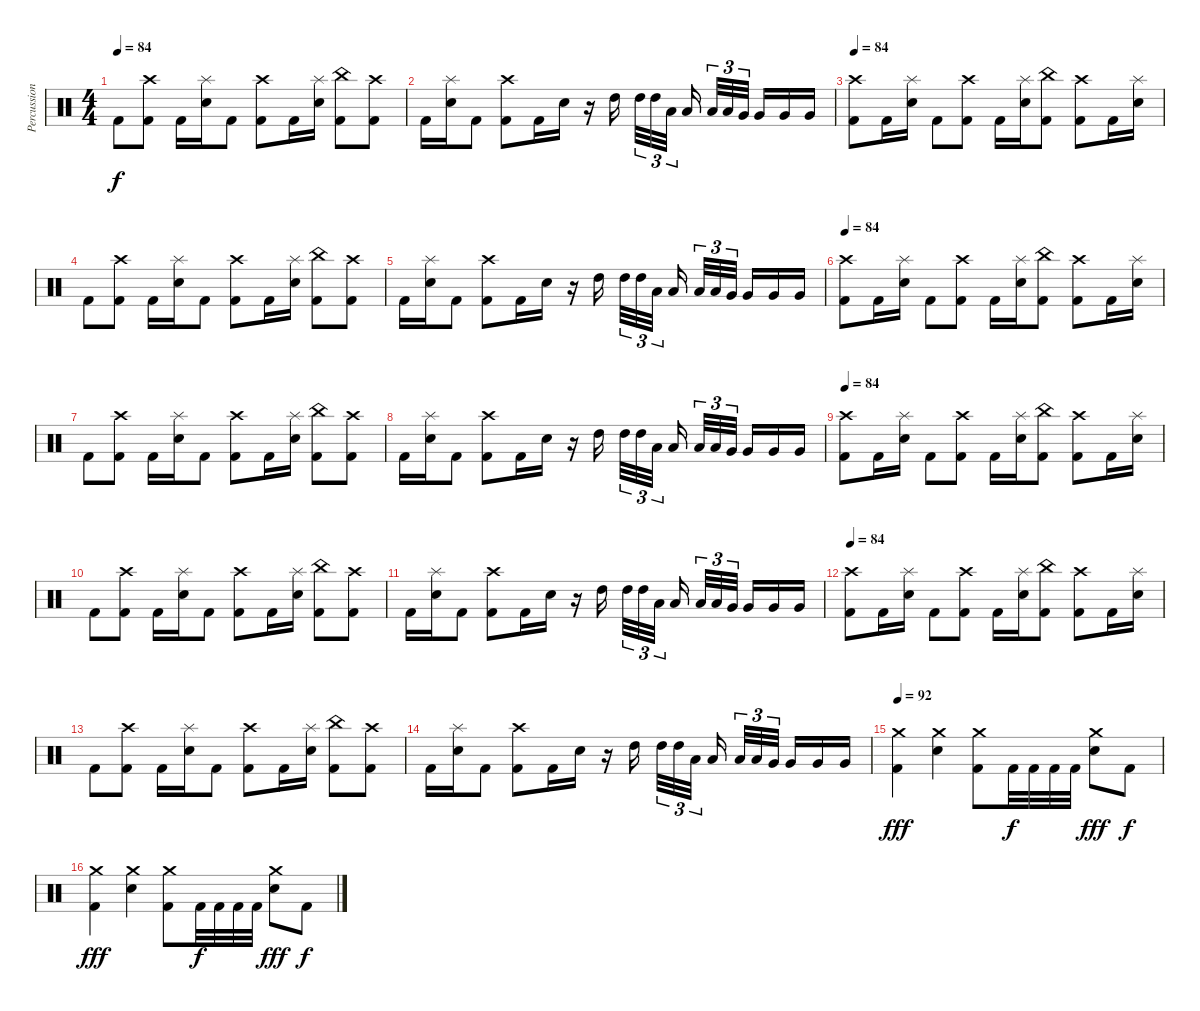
\track ("Percussion" "Percussion") {instrument percussion}
\staff {score}
\articulation defaults
\ts (4 4)
\tempo 84
\clef neutral
\ks c "Kick (hit) 2".8{dy f}
("Crash high (hit)" "Kick (hit) 2").8 "Kick (hit) 2".16 ("Splash (hit)" "Electric Snare (hit)").16 "Kick (hit) 2".8 ("Crash high (hit)" "Kick (hit) 2").8 "Kick (hit) 2".16 ("Splash (hit)" "Electric Snare (hit)").16 ("China (hit)" "Kick (hit) 2").8 ("Crash high (hit)" "Kick (hit) 2").8 |
"Kick (hit) 2".16 ("Splash (hit)" "Electric Snare (hit)").16 "Kick (hit) 2".8 ("Crash high (hit)" "Kick (hit) 2").8 "Kick (hit) 2".16 "Electric Snare (hit)".16 r.16 "High Tom (hit)".16 "High Tom (hit)".32{tu (3 2)} "High Tom (hit)".32{tu (3 2)} "Low Tom (hit)".32{tu (3 2)} "Low Tom (hit)".16 "Low Tom (hit)".32{tu (3 2)} "Low Tom (hit)".32{tu (3 2)} "Very Low Tom (hit)".32{tu (3 2)} "Very Low Tom (hit)".16 "Very Low Tom (hit)".16 "Very Low Tom (hit)".16 |
\tempo 84
("Crash high (hit)" "Kick (hit) 2").8 "Kick (hit) 2".16 ("Splash (hit)" "Electric Snare (hit)").16 "Kick (hit) 2".8 ("Crash high (hit)" "Kick (hit) 2").8 "Kick (hit) 2".16 ("Splash (hit)" "Electric Snare (hit)").16 ("China (hit)" "Kick (hit) 2").8 ("Crash high (hit)" "Kick (hit) 2").8 "Kick (hit) 2".16 ("Splash (hit)" "Electric Snare (hit)").16 |
"Kick (hit) 2".8 ("Crash high (hit)" "Kick (hit) 2").8 "Kick (hit) 2".16 ("Splash (hit)" "Electric Snare (hit)").16 "Kick (hit) 2".8 ("Crash high (hit)" "Kick (hit) 2").8 "Kick (hit) 2".16 ("Splash (hit)" "Electric Snare (hit)").16 ("China (hit)" "Kick (hit) 2").8 ("Crash high (hit)" "Kick (hit) 2").8 |
"Kick (hit) 2".16 ("Splash (hit)" "Electric Snare (hit)").16 "Kick (hit) 2".8 ("Crash high (hit)" "Kick (hit) 2").8 "Kick (hit) 2".16 "Electric Snare (hit)".16 r.16 "High Tom (hit)".16 "High Tom (hit)".32{tu (3 2)} "High Tom (hit)".32{tu (3 2)} "Low Tom (hit)".32{tu (3 2)} "Low Tom (hit)".16 "Low Tom (hit)".32{tu (3 2)} "Low Tom (hit)".32{tu (3 2)} "Very Low Tom (hit)".32{tu (3 2)} "Very Low Tom (hit)".16 "Very Low Tom (hit)".16 "Very Low Tom (hit)".16 |
\tempo 84
("Crash high (hit)" "Kick (hit) 2").8 "Kick (hit) 2".16 ("Splash (hit)" "Electric Snare (hit)").16 "Kick (hit) 2".8 ("Crash high (hit)" "Kick (hit) 2").8 "Kick (hit) 2".16 ("Splash (hit)" "Electric Snare (hit)").16 ("China (hit)" "Kick (hit) 2").8 ("Crash high (hit)" "Kick (hit) 2").8 "Kick (hit) 2".16 ("Splash (hit)" "Electric Snare (hit)").16 |
"Kick (hit) 2".8 ("Crash high (hit)" "Kick (hit) 2").8 "Kick (hit) 2".16 ("Splash (hit)" "Electric Snare (hit)").16 "Kick (hit) 2".8 ("Crash high (hit)" "Kick (hit) 2").8 "Kick (hit) 2".16 ("Splash (hit)" "Electric Snare (hit)").16 ("China (hit)" "Kick (hit) 2").8 ("Crash high (hit)" "Kick (hit) 2").8 |
"Kick (hit) 2".16 ("Splash (hit)" "Electric Snare (hit)").16 "Kick (hit) 2".8 ("Crash high (hit)" "Kick (hit) 2").8 "Kick (hit) 2".16 "Electric Snare (hit)".16 r.16 "High Tom (hit)".16 "High Tom (hit)".32{tu (3 2)} "High Tom (hit)".32{tu (3 2)} "Low Tom (hit)".32{tu (3 2)} "Low Tom (hit)".16 "Low Tom (hit)".32{tu (3 2)} "Low Tom (hit)".32{tu (3 2)} "Very Low Tom (hit)".32{tu (3 2)} "Very Low Tom (hit)".16 "Very Low Tom (hit)".16 "Very Low Tom (hit)".16 |
\tempo 84
("Crash high (hit)" "Kick (hit) 2").8 "Kick (hit) 2".16 ("Splash (hit)" "Electric Snare (hit)").16 "Kick (hit) 2".8 ("Crash high (hit)" "Kick (hit) 2").8 "Kick (hit) 2".16 ("Splash (hit)" "Electric Snare (hit)").16 ("China (hit)" "Kick (hit) 2").8 ("Crash high (hit)" "Kick (hit) 2").8 "Kick (hit) 2".16 ("Splash (hit)" "Electric Snare (hit)").16 |
"Kick (hit) 2".8 ("Crash high (hit)" "Kick (hit) 2").8 "Kick (hit) 2".16 ("Splash (hit)" "Electric Snare (hit)").16 "Kick (hit) 2".8 ("Crash high (hit)" "Kick (hit) 2").8 "Kick (hit) 2".16 ("Splash (hit)" "Electric Snare (hit)").16 ("China (hit)" "Kick (hit) 2").8 ("Crash high (hit)" "Kick (hit) 2").8 |
"Kick (hit) 2".16 ("Splash (hit)" "Electric Snare (hit)").16 "Kick (hit) 2".8 ("Crash high (hit)" "Kick (hit) 2").8 "Kick (hit) 2".16 "Electric Snare (hit)".16 r.16 "High Tom (hit)".16 "High Tom (hit)".32{tu (3 2)} "High Tom (hit)".32{tu (3 2)} "Low Tom (hit)".32{tu (3 2)} "Low Tom (hit)".16 "Low Tom (hit)".32{tu (3 2)} "Low Tom (hit)".32{tu (3 2)} "Very Low Tom (hit)".32{tu (3 2)} "Very Low Tom (hit)".16 "Very Low Tom (hit)".16 "Very Low Tom (hit)".16 |
\tempo 84
("Crash high (hit)" "Kick (hit) 2").8 "Kick (hit) 2".16 ("Splash (hit)" "Electric Snare (hit)").16 "Kick (hit) 2".8 ("Crash high (hit)" "Kick (hit) 2").8 "Kick (hit) 2".16 ("Splash (hit)" "Electric Snare (hit)").16 ("China (hit)" "Kick (hit) 2").8 ("Crash high (hit)" "Kick (hit) 2").8 "Kick (hit) 2".16 ("Splash (hit)" "Electric Snare (hit)").16 |
"Kick (hit) 2".8 ("Crash high (hit)" "Kick (hit) 2").8 "Kick (hit) 2".16 ("Splash (hit)" "Electric Snare (hit)").16 "Kick (hit) 2".8 ("Crash high (hit)" "Kick (hit) 2").8 "Kick (hit) 2".16 ("Splash (hit)" "Electric Snare (hit)").16 ("China (hit)" "Kick (hit) 2").8 ("Crash high (hit)" "Kick (hit) 2").8 |
"Kick (hit) 2".16 ("Splash (hit)" "Electric Snare (hit)").16 "Kick (hit) 2".8 ("Crash high (hit)" "Kick (hit) 2").8 "Kick (hit) 2".16 "Electric Snare (hit)".16 r.16 "High Tom (hit)".16 "High Tom (hit)".32{tu (3 2)} "High Tom (hit)".32{tu (3 2)} "Low Tom (hit)".32{tu (3 2)} "Low Tom (hit)".16 "Low Tom (hit)".32{tu (3 2)} "Low Tom (hit)".32{tu (3 2)} "Very Low Tom (hit)".32{tu (3 2)} "Very Low Tom (hit)".16 "Very Low Tom (hit)".16 "Very Low Tom (hit)".16 |
\tempo 92
("Crash medium (hit)" "Kick (hit) 2").4{dy fff} ("Crash medium (hit)" "Electric Snare (hit)").4 ("Crash medium (hit)" "Kick (hit) 2").8 "Kick (hit) 2".32{dy f} "Kick (hit) 2".32 "Kick (hit) 2".32 "Kick (hit) 2".32 ("Crash medium (hit)" "Electric Snare (hit)").8{dy fff} "Kick (hit) 2".8{dy f} |
("Crash medium (hit)" "Kick (hit) 2").4{dy fff} ("Crash medium (hit)" "Electric Snare (hit)").4 ("Crash medium (hit)" "Kick (hit) 2").8 "Kick (hit) 2".32{dy f} "Kick (hit) 2".32 "Kick (hit) 2".32 "Kick (hit) 2".32 ("Crash medium (hit)" "Electric Snare (hit)").8{dy fff} "Kick (hit) 2".8{dy f}
